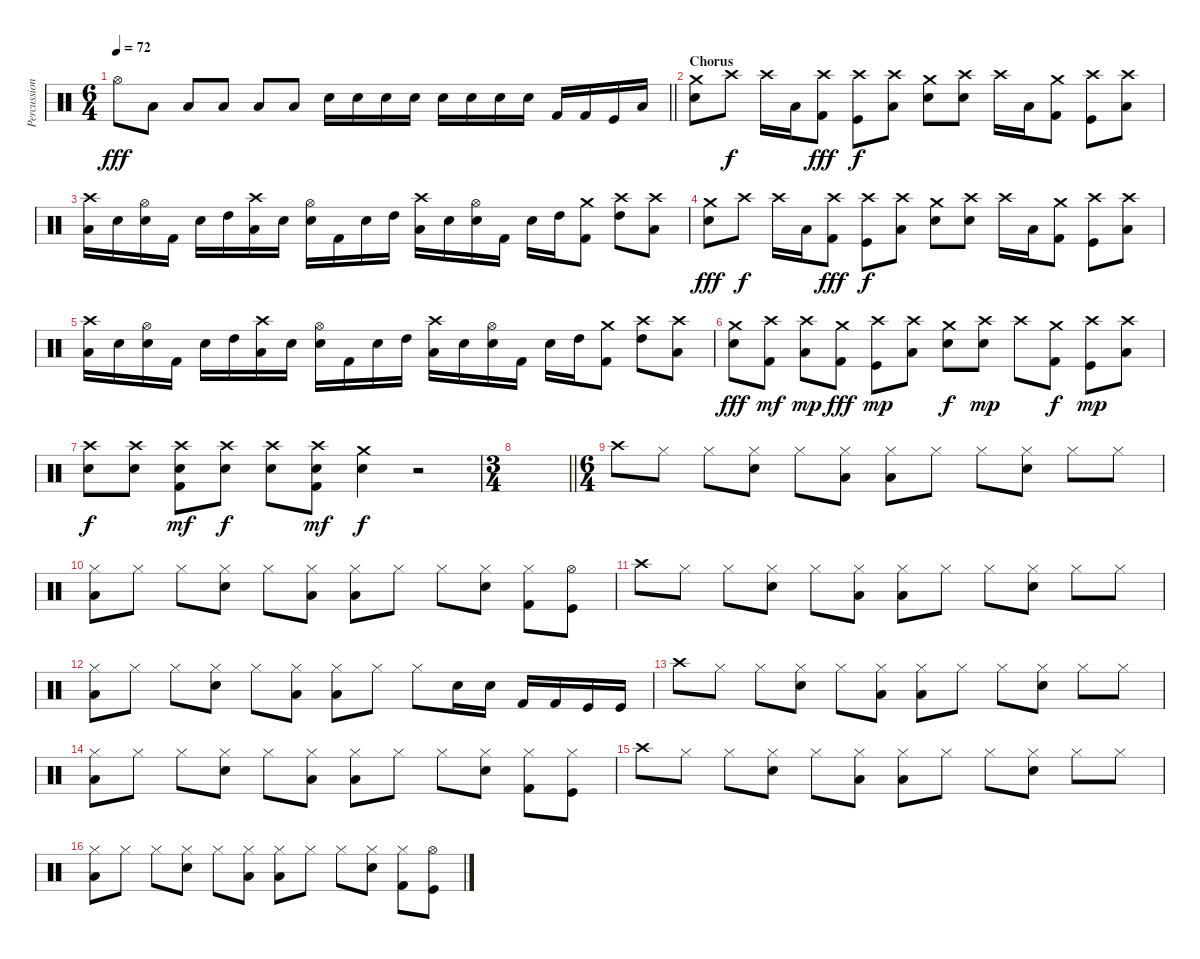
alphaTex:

\track ("Percussion" "Percussion") {instrument percussion}
\staff {score}
\articulation defaults
\ts (6 4)
\tempo 72
\clef neutral
\barLineRight lightlight
\ks c "Hi-Hat (open)".8{dy fff} "Low Floor Tom (hit)".8 "Low Floor Tom (hit)".8 "Low Floor Tom (hit)".8 "Low Floor Tom (hit)".8 "Low Floor Tom (hit)".8 "Electric Snare (hit)".16 "Electric Snare (hit)".16 "Electric Snare (hit)".16 "Snare (hit) 2".16 "Snare (hit) 2".16 "Snare (hit) 2".16 "Snare (hit) 2".16 "Snare (hit) 2".16 "Kick (hit) 2".16 "Kick (hit) 2".16 "Kick (hit)".16 "Low Tom (hit)".16
|
\section ("" "Chorus")
("Crash medium (hit)" "Snare (hit) 2").8 "Crash high (hit)".8{dy f} "Crash high (hit)".16 "Low Tom (hit)".16 ("Crash high (hit)" "Kick (hit) 2").8{dy fff} ("Crash high (hit)" "Kick (hit)").8{dy f} ("Crash high (hit)" "Low Tom (hit)").8 ("Crash medium (hit)" "Snare (hit) 2").8 ("Crash high (hit)" "Snare (hit) 2").8 "Crash high (hit)".16 "Low Tom (hit)".16 ("Crash medium (hit)" "Kick (hit) 2").8 ("Crash high (hit)" "Kick (hit)").8 ("Crash high (hit)" "Low Tom (hit)").8 |
("Crash high (hit)" "Low Tom (hit)").16 "Snare (hit) 2".16 ("Hi-Hat (open)" "Electric Snare (hit)").16 "Kick (hit) 2".16 "Snare (hit) 2".16 "High Tom (hit)".16 ("Crash high (hit)" "Low Tom (hit)").16 "Snare (hit) 2".16 ("Hi-Hat (open)" "Electric Snare (hit)").16 "Kick (hit) 2".16 "Snare (hit) 2".16 "High Tom (hit)".16 ("Crash high (hit)" "Low Tom (hit)").16 "Snare (hit) 2".16 ("Hi-Hat (open)" "Electric Snare (hit)").16 "Kick (hit) 2".16 "Snare (hit) 2".16 "High Tom (hit)".16 ("Crash medium (hit)" "Kick (hit) 2").8 ("Crash high (hit)" "High Tom (hit)").8 ("Crash high (hit)" "Low Tom (hit)").8 |
("Crash medium (hit)" "Snare (hit) 2").8{dy fff} "Crash high (hit)".8{dy f} "Crash high (hit)".16 "Low Tom (hit)".16 ("Crash high (hit)" "Kick (hit) 2").8{dy fff} ("Crash high (hit)" "Kick (hit)").8{dy f} ("Crash high (hit)" "Low Tom (hit)").8 ("Crash medium (hit)" "Snare (hit) 2").8 ("Crash high (hit)" "Snare (hit) 2").8 "Crash high (hit)".16 "Low Tom (hit)".16 ("Crash medium (hit)" "Kick (hit) 2").8 ("Crash high (hit)" "Kick (hit)").8 ("Crash high (hit)" "Low Tom (hit)").8 |
("Crash high (hit)" "Low Tom (hit)").16 "Snare (hit) 2".16 ("Hi-Hat (open)" "Electric Snare (hit)").16 "Kick (hit) 2".16 "Snare (hit) 2".16 "High Tom (hit)".16 ("Crash high (hit)" "Low Tom (hit)").16 "Snare (hit) 2".16 ("Hi-Hat (open)" "Electric Snare (hit)").16 "Kick (hit) 2".16 "Snare (hit) 2".16 "High Tom (hit)".16 ("Crash high (hit)" "Low Tom (hit)").16 "Snare (hit) 2".16 ("Hi-Hat (open)" "Electric Snare (hit)").16 "Kick (hit) 2".16 "Snare (hit) 2".16 "High Tom (hit)".16 ("Crash medium (hit)" "Kick (hit) 2").8 ("Crash high (hit)" "High Tom (hit)").8 ("Crash high (hit)" "Low Tom (hit)").8 |
("Crash medium (hit)" "Snare (hit) 2").8{dy fff} ("Crash high (hit)" "Kick (hit) 2").8{dy mf} ("Crash high (hit)" "Low Tom (hit)").8{dy mp} ("Crash medium (hit)" "Kick (hit) 2").8{dy fff} ("Crash high (hit)" "Kick (hit)").8{dy mp} ("Crash high (hit)" "Low Tom (hit)").8 ("Crash medium (hit)" "Snare (hit) 2").8{dy f} ("Crash high (hit)" "Snare (hit) 2").8{dy mp} "Crash high (hit)".8 ("Crash medium (hit)" "Kick (hit) 2").8{dy f} ("Crash high (hit)" "Kick (hit)").8{dy mp} ("Crash high (hit)" "Low Tom (hit)").8 |
("Crash high (hit)" "Snare (hit) 2").8{dy f} ("Crash high (hit)" "Snare (hit) 2").8 ("Crash high (hit)" "Snare (hit) 2" "Kick (hit) 2").8{dy mf} ("Crash high (hit)" "Snare (hit) 2").8{dy f} ("Crash high (hit)" "Snare (hit) 2").8 ("Crash high (hit)" "Snare (hit) 2" "Kick (hit) 2").8{dy mf} ("Crash medium (hit)" "Snare (hit) 2").4{dy f} r.2 |
\ts (3 4)
\barLineRight lightlight
|
\ts (6 4)
\section ("" "")
"Crash high (hit)".8 "Hi-Hat (closed)".8 "Hi-Hat (closed)".8 ("Hi-Hat (closed)" "Snare (hit) 2").8 "Hi-Hat (closed)".8 ("Hi-Hat (closed)" "Low Floor Tom (hit)").8 ("Hi-Hat (closed)" "Low Floor Tom (hit)").8 "Hi-Hat (closed)".8 "Hi-Hat (closed)".8 ("Hi-Hat (closed)" "Snare (hit) 2").8 "Hi-Hat (closed)".8 "Hi-Hat (closed)".8 |
("Hi-Hat (closed)" "Low Floor Tom (hit)").8 "Hi-Hat (closed)".8 "Hi-Hat (closed)".8 ("Hi-Hat (closed)" "Snare (hit) 2").8 "Hi-Hat (closed)".8 ("Hi-Hat (closed)" "Low Floor Tom (hit)").8 ("Hi-Hat (closed)" "Low Floor Tom (hit)").8 "Hi-Hat (closed)".8 "Hi-Hat (closed)".8 ("Hi-Hat (closed)" "Snare (hit) 2").8 ("Hi-Hat (closed)" "Kick (hit) 2").8 ("Hi-Hat (open)" "Kick (hit)").8 |
"Crash high (hit)".8 "Hi-Hat (closed)".8 "Hi-Hat (closed)".8 ("Hi-Hat (closed)" "Snare (hit) 2").8 "Hi-Hat (closed)".8 ("Hi-Hat (closed)" "Low Floor Tom (hit)").8 ("Hi-Hat (closed)" "Low Floor Tom (hit)").8 "Hi-Hat (closed)".8 "Hi-Hat (closed)".8 ("Hi-Hat (closed)" "Snare (hit) 2").8 "Hi-Hat (closed)".8 "Hi-Hat (closed)".8 |
("Hi-Hat (closed)" "Low Floor Tom (hit)").8 "Hi-Hat (closed)".8 "Hi-Hat (closed)".8 ("Hi-Hat (closed)" "Snare (hit) 2").8 "Hi-Hat (closed)".8 ("Hi-Hat (closed)" "Low Floor Tom (hit)").8 ("Hi-Hat (closed)" "Low Floor Tom (hit)").8 "Hi-Hat (closed)".8 "Hi-Hat (closed)".8 "Snare (hit) 2".16 "Snare (hit) 2".16 "Kick (hit) 2".16 "Kick (hit) 2".16 "Kick (hit)".16 "Kick (hit)".16 |
"Crash high (hit)".8 "Hi-Hat (closed)".8 "Hi-Hat (closed)".8 ("Hi-Hat (closed)" "Snare (hit) 2").8 "Hi-Hat (closed)".8 ("Hi-Hat (closed)" "Low Floor Tom (hit)").8 ("Hi-Hat (closed)" "Low Floor Tom (hit)").8 "Hi-Hat (closed)".8 "Hi-Hat (closed)".8 ("Hi-Hat (closed)" "Snare (hit) 2").8 "Hi-Hat (closed)".8 "Hi-Hat (closed)".8 |
("Hi-Hat (closed)" "Low Floor Tom (hit)").8 "Hi-Hat (closed)".8 "Hi-Hat (closed)".8 ("Hi-Hat (closed)" "Snare (hit) 2").8 "Hi-Hat (closed)".8 ("Hi-Hat (closed)" "Low Floor Tom (hit)").8 ("Hi-Hat (closed)" "Low Floor Tom (hit)").8 "Hi-Hat (closed)".8 "Hi-Hat (closed)".8 ("Hi-Hat (closed)" "Snare (hit) 2").8 ("Hi-Hat (closed)" "Kick (hit) 2").8 ("Hi-Hat (closed)" "Kick (hit)").8 |
"Crash high (hit)".8 "Hi-Hat (closed)".8 "Hi-Hat (closed)".8 ("Hi-Hat (closed)" "Snare (hit) 2").8 "Hi-Hat (closed)".8 ("Hi-Hat (closed)" "Low Floor Tom (hit)").8 ("Hi-Hat (closed)" "Low Floor Tom (hit)").8 "Hi-Hat (closed)".8 "Hi-Hat (closed)".8 ("Hi-Hat (closed)" "Snare (hit) 2").8 "Hi-Hat (closed)".8 "Hi-Hat (closed)".8 |
("Hi-Hat (closed)" "Low Floor Tom (hit)").8 "Hi-Hat (closed)".8 "Hi-Hat (closed)".8 ("Hi-Hat (closed)" "Snare (hit) 2").8 "Hi-Hat (closed)".8 ("Hi-Hat (closed)" "Low Floor Tom (hit)").8 ("Hi-Hat (closed)" "Low Floor Tom (hit)").8 "Hi-Hat (closed)".8 "Hi-Hat (closed)".8 ("Hi-Hat (closed)" "Snare (hit) 2").8 ("Hi-Hat (closed)" "Kick (hit) 2").8 ("Hi-Hat (open)" "Kick (hit)").8
